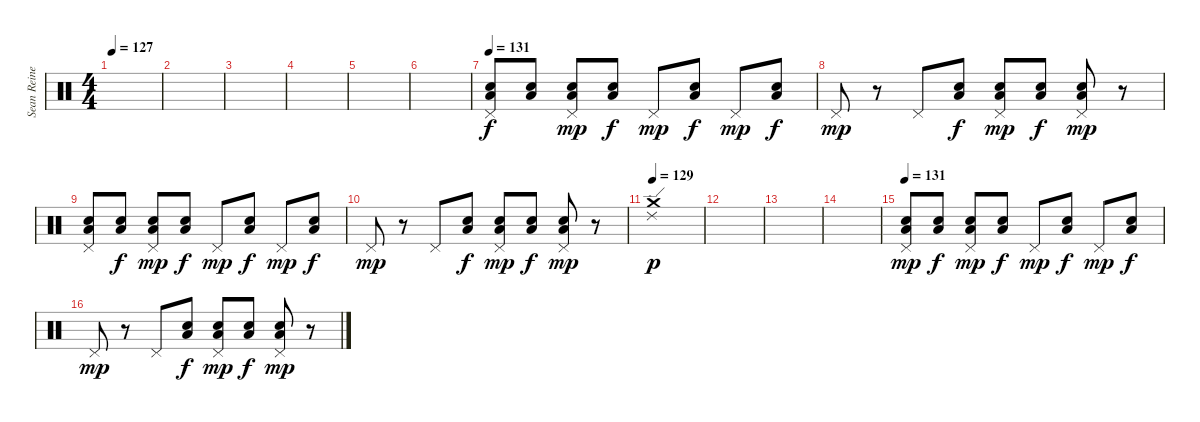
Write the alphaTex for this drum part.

\track ("Sean Reinert" "Sean Reine") {instrument percussion}
\staff {score}
\articulation defaults
\ts (4 4)
\tempo 127
\clef neutral
\ks c
|
|
|
|
|
|
\tempo 131
("Snare (hit) 2" "Low Tom (hit)" "Pedal Hi-Hat (hit)").8 ("Snare (hit) 2" "Low Tom (hit)").8{dy f} ("Snare (hit) 2" "Low Tom (hit)" "Pedal Hi-Hat (hit)").8{dy mp} ("Snare (hit) 2" "Low Tom (hit)").8{dy f} "Pedal Hi-Hat (hit)".8{dy mp} ("Snare (hit) 2" "Low Tom (hit)").8{dy f} "Pedal Hi-Hat (hit)".8{dy mp} ("Snare (hit) 2" "Low Tom (hit)").8{dy f} |
"Pedal Hi-Hat (hit)".8{dy mp} r.8 "Pedal Hi-Hat (hit)".8 ("Snare (hit) 2" "Low Tom (hit)").8{dy f} ("Snare (hit) 2" "Low Tom (hit)" "Pedal Hi-Hat (hit)").8{dy mp} ("Snare (hit) 2" "Low Tom (hit)").8{dy f} ("Snare (hit) 2" "Low Tom (hit)" "Pedal Hi-Hat (hit)").8{dy mp} r.8 |
("Snare (hit) 2" "Low Tom (hit)" "Pedal Hi-Hat (hit)").8 ("Snare (hit) 2" "Low Tom (hit)").8{dy f} ("Snare (hit) 2" "Low Tom (hit)" "Pedal Hi-Hat (hit)").8{dy mp} ("Snare (hit) 2" "Low Tom (hit)").8{dy f} "Pedal Hi-Hat (hit)".8{dy mp} ("Snare (hit) 2" "Low Tom (hit)").8{dy f} "Pedal Hi-Hat (hit)".8{dy mp} ("Snare (hit) 2" "Low Tom (hit)").8{dy f} |
"Pedal Hi-Hat (hit)".8{dy mp} r.8 "Pedal Hi-Hat (hit)".8 ("Snare (hit) 2" "Low Tom (hit)").8{dy f} ("Snare (hit) 2" "Low Tom (hit)" "Pedal Hi-Hat (hit)").8{dy mp} ("Snare (hit) 2" "Low Tom (hit)").8{dy f} ("Snare (hit) 2" "Low Tom (hit)" "Pedal Hi-Hat (hit)").8{dy mp} r.8 |
\tempo 129
("Crash medium (hit)" "Ride (edge) 2").1{dy p} |
|
|
|
\tempo 131
("Snare (hit) 2" "Low Tom (hit)" "Pedal Hi-Hat (hit)").8{dy mp} ("Snare (hit) 2" "Low Tom (hit)").8{dy f} ("Snare (hit) 2" "Low Tom (hit)" "Pedal Hi-Hat (hit)").8{dy mp} ("Snare (hit) 2" "Low Tom (hit)").8{dy f} "Pedal Hi-Hat (hit)".8{dy mp} ("Snare (hit) 2" "Low Tom (hit)").8{dy f} "Pedal Hi-Hat (hit)".8{dy mp} ("Snare (hit) 2" "Low Tom (hit)").8{dy f} |
"Pedal Hi-Hat (hit)".8{dy mp} r.8 "Pedal Hi-Hat (hit)".8 ("Snare (hit) 2" "Low Tom (hit)").8{dy f} ("Snare (hit) 2" "Low Tom (hit)" "Pedal Hi-Hat (hit)").8{dy mp} ("Snare (hit) 2" "Low Tom (hit)").8{dy f} ("Snare (hit) 2" "Low Tom (hit)" "Pedal Hi-Hat (hit)").8{dy mp} r.8
